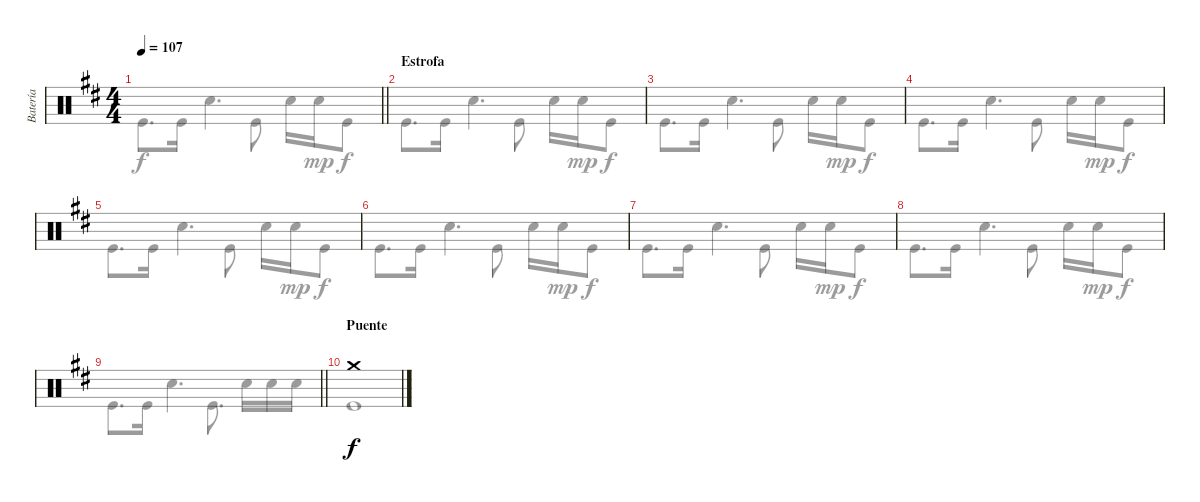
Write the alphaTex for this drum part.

\track ("Batería" "Batería") {instrument percussion}
\staff {score}
\articulation defaults
\voice
\ts (4 4)
\tempo 107
\clef neutral
\barLineRight lightlight
\ks d
|
\section ("" "Estrofa")
|
|
|
|
|
|
|
\barLineRight lightlight
|
\section ("" "Puente")
"Crash medium (hit)".1 |
|
|
|
|
|
\voice
\clef neutral
\ottava regular
\simile none
\barLineRight lightlight
\ks d "Kick (hit)".8{d dy f} "Kick (hit)".16 "Electric Snare (hit)".4{d} "Kick (hit)".8 "Electric Snare (hit)".16 "Electric Snare (hit)".16{dy mp} "Kick (hit)".8{dy f}
|
"Kick (hit)".8{d} "Kick (hit)".16 "Electric Snare (hit)".4{d} "Kick (hit)".8 "Electric Snare (hit)".16 "Electric Snare (hit)".16{dy mp} "Kick (hit)".8{dy f} |
"Kick (hit)".8{d} "Kick (hit)".16 "Electric Snare (hit)".4{d} "Kick (hit)".8 "Electric Snare (hit)".16 "Electric Snare (hit)".16{dy mp} "Kick (hit)".8{dy f} |
"Kick (hit)".8{d} "Kick (hit)".16 "Electric Snare (hit)".4{d} "Kick (hit)".8 "Electric Snare (hit)".16 "Electric Snare (hit)".16{dy mp} "Kick (hit)".8{dy f} |
"Kick (hit)".8{d} "Kick (hit)".16 "Electric Snare (hit)".4{d} "Kick (hit)".8 "Electric Snare (hit)".16 "Electric Snare (hit)".16{dy mp} "Kick (hit)".8{dy f} |
"Kick (hit)".8{d} "Kick (hit)".16 "Electric Snare (hit)".4{d} "Kick (hit)".8 "Electric Snare (hit)".16 "Electric Snare (hit)".16{dy mp} "Kick (hit)".8{dy f} |
"Kick (hit)".8{d} "Kick (hit)".16 "Electric Snare (hit)".4{d} "Kick (hit)".8 "Electric Snare (hit)".16 "Electric Snare (hit)".16{dy mp} "Kick (hit)".8{dy f} |
"Kick (hit)".8{d} "Kick (hit)".16 "Electric Snare (hit)".4{d} "Kick (hit)".8 "Electric Snare (hit)".16 "Electric Snare (hit)".16{dy mp} "Kick (hit)".8{dy f} |
\barLineRight lightlight "Kick (hit)".8{d} "Kick (hit)".16 "Electric Snare (hit)".4{d} "Kick (hit)".8{d} "Electric Snare (hit)".16 "Electric Snare (hit)".16 "Electric Snare (hit)".16
|
"Kick (hit)".1 |
|
|
|
|
|
